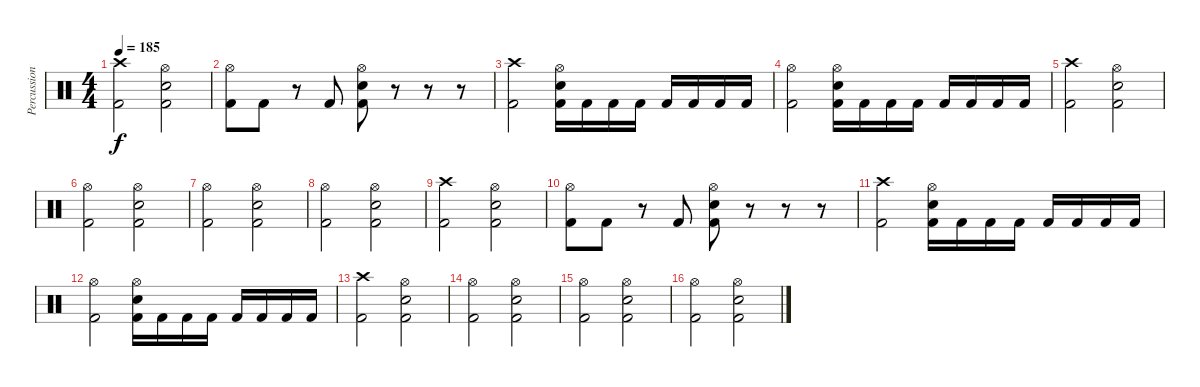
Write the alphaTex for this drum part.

\track ("Percussion" "Percussion") {instrument percussion}
\staff {score}
\articulation defaults
\ts (4 4)
\tempo 185
\clef neutral
\ks c
("Kick (hit) 2" "Crash high (hit)").2{dy f} ("Kick (hit) 2" "Snare (hit) 2" "Hi-Hat (open)").2 |
("Kick (hit) 2" "Hi-Hat (open)").8 "Kick (hit) 2".8 r.8 "Kick (hit) 2".8 ("Kick (hit) 2" "Hi-Hat (open)" "Snare (hit) 2").8 r.8 r.8 r.8 |
("Kick (hit) 2" "Crash high (hit)").2 ("Snare (hit) 2" "Hi-Hat (open)" "Kick (hit) 2").16 "Kick (hit) 2".16 "Kick (hit) 2".16 "Kick (hit) 2".16 "Kick (hit) 2".16 "Kick (hit) 2".16 "Kick (hit) 2".16 "Kick (hit) 2".16 |
("Kick (hit) 2" "Hi-Hat (open)").2 ("Snare (hit) 2" "Kick (hit) 2" "Hi-Hat (open)").16 "Kick (hit) 2".16 "Kick (hit) 2".16 "Kick (hit) 2".16 "Kick (hit) 2".16 "Kick (hit) 2".16 "Kick (hit) 2".16 "Kick (hit) 2".16 |
("Kick (hit) 2" "Crash high (hit)").2 ("Kick (hit) 2" "Snare (hit) 2" "Hi-Hat (open)").2 |
("Kick (hit) 2" "Hi-Hat (open)").2 ("Kick (hit) 2" "Snare (hit) 2" "Hi-Hat (open)").2 |
("Kick (hit) 2" "Hi-Hat (open)").2 ("Kick (hit) 2" "Snare (hit) 2" "Hi-Hat (open)").2 |
("Kick (hit) 2" "Hi-Hat (open)").2 ("Kick (hit) 2" "Snare (hit) 2" "Hi-Hat (open)").2 |
("Kick (hit) 2" "Crash high (hit)").2 ("Kick (hit) 2" "Snare (hit) 2" "Hi-Hat (open)").2 |
("Kick (hit) 2" "Hi-Hat (open)").8 "Kick (hit) 2".8 r.8 "Kick (hit) 2".8 ("Kick (hit) 2" "Hi-Hat (open)" "Snare (hit) 2").8 r.8 r.8 r.8 |
("Kick (hit) 2" "Crash high (hit)").2 ("Snare (hit) 2" "Hi-Hat (open)" "Kick (hit) 2").16 "Kick (hit) 2".16 "Kick (hit) 2".16 "Kick (hit) 2".16 "Kick (hit) 2".16 "Kick (hit) 2".16 "Kick (hit) 2".16 "Kick (hit) 2".16 |
("Kick (hit) 2" "Hi-Hat (open)").2 ("Snare (hit) 2" "Kick (hit) 2" "Hi-Hat (open)").16 "Kick (hit) 2".16 "Kick (hit) 2".16 "Kick (hit) 2".16 "Kick (hit) 2".16 "Kick (hit) 2".16 "Kick (hit) 2".16 "Kick (hit) 2".16 |
("Kick (hit) 2" "Crash high (hit)").2 ("Kick (hit) 2" "Snare (hit) 2" "Hi-Hat (open)").2 |
("Kick (hit) 2" "Hi-Hat (open)").2 ("Kick (hit) 2" "Snare (hit) 2" "Hi-Hat (open)").2 |
("Kick (hit) 2" "Hi-Hat (open)").2 ("Kick (hit) 2" "Snare (hit) 2" "Hi-Hat (open)").2 |
("Kick (hit) 2" "Hi-Hat (open)").2 ("Kick (hit) 2" "Snare (hit) 2" "Hi-Hat (open)").2
